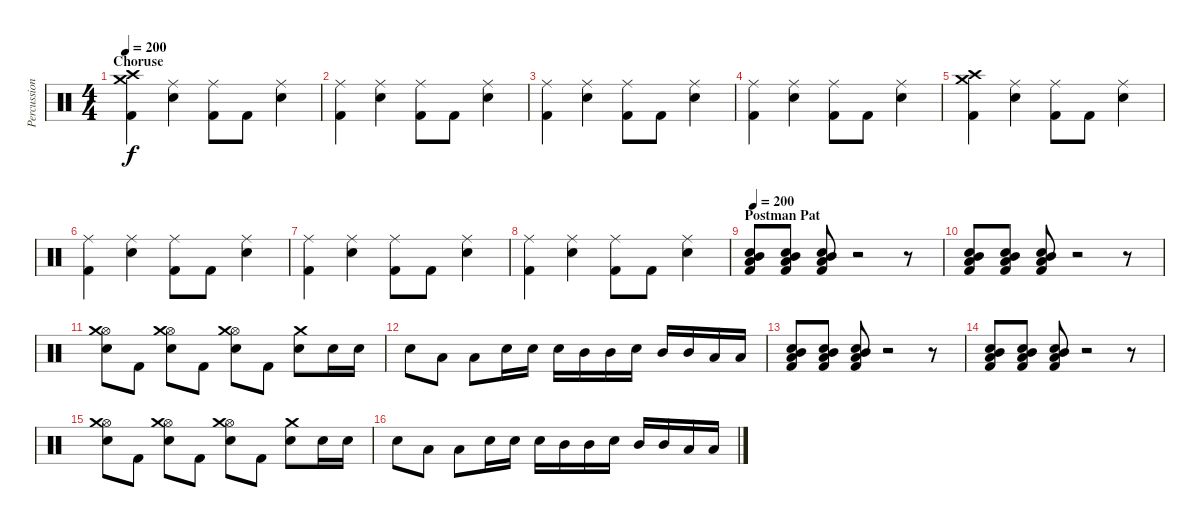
\track ("Percussion" "Percussion") {instrument percussion}
\staff {score}
\articulation defaults
\ts (4 4)
\section ("" "Choruse")
\tempo 200
\clef neutral
\ks c
("Crash medium (hit)" "Crash high (hit)" "Kick (hit) 2").4{dy f} ("Ride (middle)" "Electric Snare (hit)").4 ("Ride (middle)" "Kick (hit) 2").8 "Kick (hit) 2".8 ("Ride (middle)" "Electric Snare (hit)").4 |
("Ride (middle)" "Kick (hit) 2").4 ("Ride (middle)" "Electric Snare (hit)").4 ("Ride (middle)" "Kick (hit) 2").8 "Kick (hit) 2".8 ("Ride (middle)" "Electric Snare (hit)").4 |
("Ride (middle)" "Kick (hit) 2").4 ("Ride (middle)" "Electric Snare (hit)").4 ("Ride (middle)" "Kick (hit) 2").8 "Kick (hit) 2".8 ("Ride (middle)" "Electric Snare (hit)").4 |
("Ride (middle)" "Kick (hit) 2").4 ("Ride (middle)" "Electric Snare (hit)").4 ("Ride (middle)" "Kick (hit) 2").8 "Kick (hit) 2".8 ("Ride (middle)" "Electric Snare (hit)").4 |
("Crash medium (hit)" "Crash high (hit)" "Kick (hit) 2").4 ("Ride (middle)" "Electric Snare (hit)").4 ("Ride (middle)" "Kick (hit) 2").8 "Kick (hit) 2".8 ("Ride (middle)" "Electric Snare (hit)").4 |
("Ride (middle)" "Kick (hit) 2").4 ("Ride (middle)" "Electric Snare (hit)").4 ("Ride (middle)" "Kick (hit) 2").8 "Kick (hit) 2".8 ("Ride (middle)" "Electric Snare (hit)").4 |
("Ride (middle)" "Kick (hit) 2").4 ("Ride (middle)" "Electric Snare (hit)").4 ("Ride (middle)" "Kick (hit) 2").8 "Kick (hit) 2".8 ("Ride (middle)" "Electric Snare (hit)").4 |
("Ride (middle)" "Kick (hit) 2").4 ("Ride (middle)" "Electric Snare (hit)").4 ("Ride (middle)" "Kick (hit) 2").8 "Kick (hit) 2".8 ("Ride (middle)" "Electric Snare (hit)").4 |
\section ("" "Postman Pat")
\tempo 200
("Low Floor Tom (hit)" "Mid Tom (hit)" "Snare (hit) 2" "Kick (hit) 2").8 ("Low Floor Tom (hit)" "Mid Tom (hit)" "Snare (hit) 2" "Kick (hit) 2").8 ("Low Floor Tom (hit)" "Mid Tom (hit)" "Snare (hit) 2" "Kick (hit) 2").8 r.2 r.8 |
("Low Floor Tom (hit)" "Mid Tom (hit)" "Snare (hit) 2" "Kick (hit) 2").8 ("Low Floor Tom (hit)" "Mid Tom (hit)" "Snare (hit) 2" "Kick (hit) 2").8 ("Low Floor Tom (hit)" "Mid Tom (hit)" "Snare (hit) 2" "Kick (hit) 2").8 r.2 r.8 |
("Hi-Hat (open)" "Electric Snare (hit)" "Crash medium (hit)").8 "Kick (hit) 2".8 ("Hi-Hat (open)" "Electric Snare (hit)" "Crash medium (hit)").8 "Kick (hit) 2".8 ("Hi-Hat (open)" "Electric Snare (hit)" "Crash medium (hit)").8 "Kick (hit) 2".8 ("Electric Snare (hit)" "Crash medium (hit)").8 "Electric Snare (hit)".16 "Electric Snare (hit)".16 |
"Electric Snare (hit)".8 "Low Floor Tom (hit)".8 "Low Floor Tom (hit)".8 "Electric Snare (hit)".16 "Electric Snare (hit)".16 "Electric Snare (hit)".16 "Mid Tom (hit)".16 "Mid Tom (hit)".16 "Electric Snare (hit)".16 "Mid Tom (hit)".16 "Mid Tom (hit)".16 "Low Floor Tom (hit)".16 "Low Floor Tom (hit)".16 |
("Low Floor Tom (hit)" "Mid Tom (hit)" "Snare (hit) 2" "Kick (hit) 2").8 ("Low Floor Tom (hit)" "Mid Tom (hit)" "Snare (hit) 2" "Kick (hit) 2").8 ("Low Floor Tom (hit)" "Mid Tom (hit)" "Snare (hit) 2" "Kick (hit) 2").8 r.2 r.8 |
("Low Floor Tom (hit)" "Mid Tom (hit)" "Snare (hit) 2" "Kick (hit) 2").8 ("Low Floor Tom (hit)" "Mid Tom (hit)" "Snare (hit) 2" "Kick (hit) 2").8 ("Low Floor Tom (hit)" "Mid Tom (hit)" "Snare (hit) 2" "Kick (hit) 2").8 r.2 r.8 |
("Hi-Hat (open)" "Electric Snare (hit)" "Crash medium (hit)").8 "Kick (hit) 2".8 ("Hi-Hat (open)" "Electric Snare (hit)" "Crash medium (hit)").8 "Kick (hit) 2".8 ("Hi-Hat (open)" "Electric Snare (hit)" "Crash medium (hit)").8 "Kick (hit) 2".8 ("Electric Snare (hit)" "Crash medium (hit)").8 "Electric Snare (hit)".16 "Electric Snare (hit)".16 |
"Electric Snare (hit)".8 "Low Floor Tom (hit)".8 "Low Floor Tom (hit)".8 "Electric Snare (hit)".16 "Electric Snare (hit)".16 "Electric Snare (hit)".16 "Mid Tom (hit)".16 "Mid Tom (hit)".16 "Electric Snare (hit)".16 "Mid Tom (hit)".16 "Mid Tom (hit)".16 "Low Floor Tom (hit)".16 "Low Floor Tom (hit)".16
